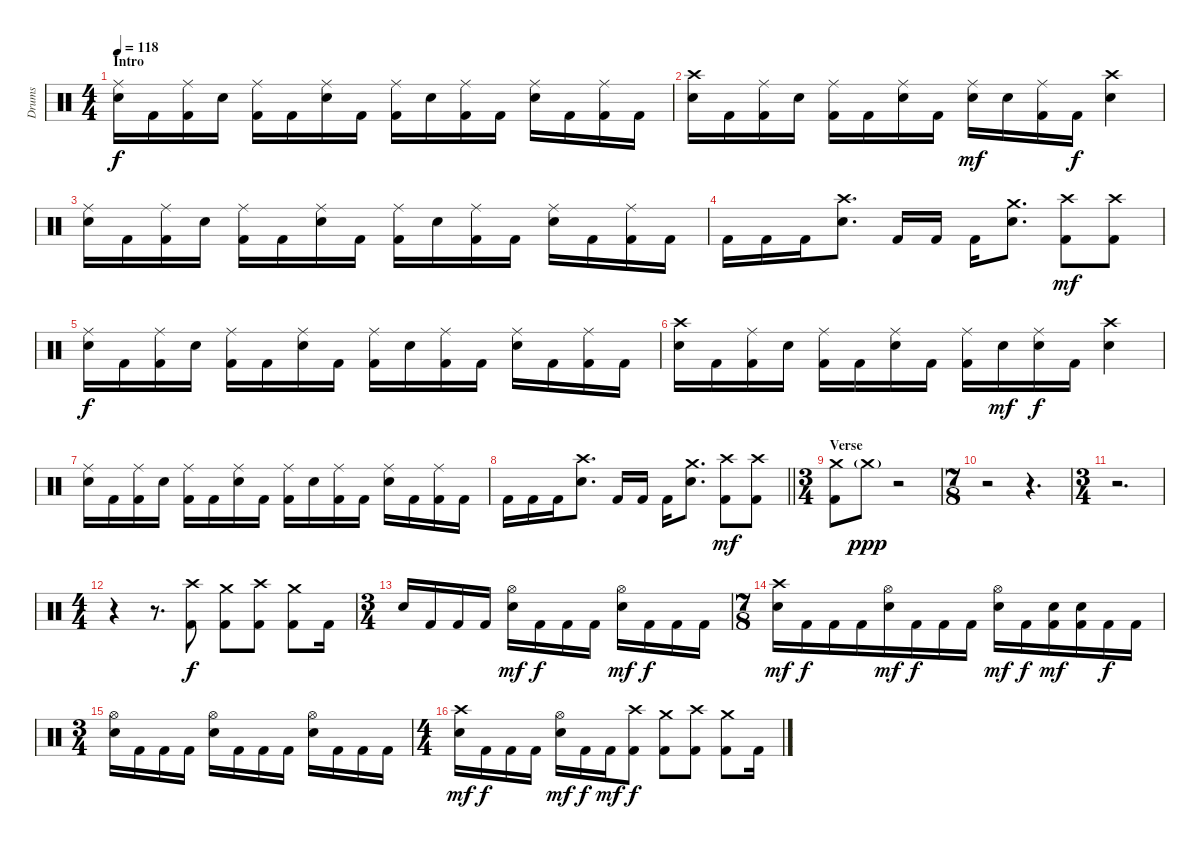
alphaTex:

\track ("Drums" "Drums") {instrument percussion}
\staff {score}
\articulation defaults
\ts (4 4)
\section ("" "Intro")
\tempo 118
\clef neutral
\ks aminor
("Ride (middle)" "Snare (hit) 2").16{dy f} "Kick (hit) 2".16 ("Ride (middle)" "Kick (hit) 2").16 "Snare (hit) 2".16 ("Ride (middle)" "Kick (hit) 2").16 "Kick (hit) 2".16 ("Ride (middle)" "Snare (hit) 2").16 "Kick (hit) 2".16 ("Ride (middle)" "Kick (hit) 2").16 "Snare (hit) 2".16 ("Ride (middle)" "Kick (hit) 2").16 "Kick (hit) 2".16 ("Ride (middle)" "Snare (hit) 2").16 "Kick (hit) 2".16 ("Ride (middle)" "Kick (hit) 2").16 "Kick (hit) 2".16 |
("Crash high (hit)" "Snare (hit) 2").16 "Kick (hit) 2".16 ("Ride (middle)" "Kick (hit) 2").16 "Snare (hit) 2".16 ("Ride (middle)" "Kick (hit) 2").16 "Kick (hit) 2".16 ("Ride (middle)" "Snare (hit) 2").16 "Kick (hit) 2".16 ("Ride (middle)" "Snare (hit) 2").16{dy mf} "Snare (hit) 2".16 ("Ride (middle)" "Kick (hit) 2").16 "Kick (hit) 2".16{dy f} ("Crash high (hit)" "Snare (hit) 2").4 |
("Ride (middle)" "Snare (hit) 2").16 "Kick (hit) 2".16 ("Ride (middle)" "Kick (hit) 2").16 "Snare (hit) 2".16 ("Ride (middle)" "Kick (hit) 2").16 "Kick (hit) 2".16 ("Ride (middle)" "Snare (hit) 2").16 "Kick (hit) 2".16 ("Ride (middle)" "Kick (hit) 2").16 "Snare (hit) 2".16 ("Ride (middle)" "Kick (hit) 2").16 "Kick (hit) 2".16 ("Ride (middle)" "Snare (hit) 2").16 "Kick (hit) 2".16 ("Ride (middle)" "Kick (hit) 2").16 "Kick (hit) 2".16 |
"Kick (hit) 2".16 "Kick (hit) 2".16 "Kick (hit) 2".16 ("Crash high (hit)" "Snare (hit) 2").8{d} "Kick (hit) 2".16 "Kick (hit) 2".16 "Kick (hit) 2".16 ("Crash medium (hit)" "Snare (hit) 2").8{d} ("Crash high (hit)" "Kick (hit) 2").8{dy mf} ("Crash high (hit)" "Kick (hit) 2").8 |
("Ride (middle)" "Snare (hit) 2").16{dy f} "Kick (hit) 2".16 ("Ride (middle)" "Kick (hit) 2").16 "Snare (hit) 2".16 ("Ride (middle)" "Kick (hit) 2").16 "Kick (hit) 2".16 ("Ride (middle)" "Snare (hit) 2").16 "Kick (hit) 2".16 ("Ride (middle)" "Kick (hit) 2").16 "Snare (hit) 2".16 ("Ride (middle)" "Kick (hit) 2").16 "Kick (hit) 2".16 ("Ride (middle)" "Snare (hit) 2").16 "Kick (hit) 2".16 ("Ride (middle)" "Kick (hit) 2").16 "Kick (hit) 2".16 |
("Crash high (hit)" "Snare (hit) 2").16 "Kick (hit) 2".16 ("Ride (middle)" "Kick (hit) 2").16 "Snare (hit) 2".16 ("Ride (middle)" "Kick (hit) 2").16 "Kick (hit) 2".16 ("Ride (middle)" "Snare (hit) 2").16 "Kick (hit) 2".16 ("Ride (middle)" "Kick (hit) 2").16 "Snare (hit) 2".16{dy mf} ("Ride (middle)" "Snare (hit) 2").16{dy f} "Kick (hit) 2".16 ("Crash high (hit)" "Snare (hit) 2").4 |
("Ride (middle)" "Snare (hit) 2").16 "Kick (hit) 2".16 ("Ride (middle)" "Kick (hit) 2").16 "Snare (hit) 2".16 ("Ride (middle)" "Kick (hit) 2").16 "Kick (hit) 2".16 ("Ride (middle)" "Snare (hit) 2").16 "Kick (hit) 2".16 ("Ride (middle)" "Kick (hit) 2").16 "Snare (hit) 2".16 ("Ride (middle)" "Kick (hit) 2").16 "Kick (hit) 2".16 ("Ride (middle)" "Snare (hit) 2").16 "Kick (hit) 2".16 ("Ride (middle)" "Kick (hit) 2").16 "Kick (hit) 2".16 |
\barLineRight lightlight "Kick (hit) 2".16 "Kick (hit) 2".16 "Kick (hit) 2".16
("Crash high (hit)" "Snare (hit) 2").8{d} "Kick (hit) 2".16 "Kick (hit) 2".16 "Kick (hit) 2".16 ("Crash medium (hit)" "Snare (hit) 2").8{d} ("Crash high (hit)" "Kick (hit) 2").8{dy mf} ("Crash high (hit)" "Kick (hit) 2").8 |
\ts (3 4)
\section ("" "Verse")
("Crash medium (hit)" "Kick (hit) 2").8 "Crash medium (hit)"{g}.8{dy ppp volume 0} r.2 |
\ts (7 8)
r.2 r.4{d} |
\ts (3 4)
r.2{d} |
\ts (4 4)
r.4 r.8{d} ("Crash high (hit)" "Kick (hit) 2").8{dy f volume 16} ("Crash medium (hit)" "Kick (hit) 2").8 ("Crash high (hit)" "Kick (hit) 2").8 ("Crash medium (hit)" "Kick (hit) 2").8 "Kick (hit) 2".16 |
\ts (3 4)
"Snare (hit) 2".16 "Kick (hit) 2".16 "Kick (hit) 2".16 "Kick (hit) 2".16 ("Hi-Hat (open)" "Snare (hit) 2").16{dy mf} "Kick (hit) 2".16{dy f} "Kick (hit) 2".16 "Kick (hit) 2".16 ("Hi-Hat (open)" "Snare (hit) 2").16{dy mf} "Kick (hit) 2".16{dy f} "Kick (hit) 2".16 "Kick (hit) 2".16 |
\ts (7 8)
("Crash high (hit)" "Snare (hit) 2").16{dy mf} "Kick (hit) 2".16{dy f} "Kick (hit) 2".16 "Kick (hit) 2".16 ("Hi-Hat (open)" "Snare (hit) 2").16{dy mf} "Kick (hit) 2".16{dy f} "Kick (hit) 2".16 "Kick (hit) 2".16 ("Hi-Hat (open)" "Snare (hit) 2").16{dy mf} "Kick (hit) 2".16{dy f} ("Snare (hit) 2" "Kick (hit) 2").16{dy mf} ("Snare (hit) 2" "Kick (hit) 2").16 "Kick (hit) 2".16{dy f} "Kick (hit) 2".16 |
\ts (3 4)
("Hi-Hat (open)" "Snare (hit) 2").16 "Kick (hit) 2".16 "Kick (hit) 2".16 "Kick (hit) 2".16 ("Hi-Hat (open)" "Snare (hit) 2").16 "Kick (hit) 2".16 "Kick (hit) 2".16 "Kick (hit) 2".16 ("Hi-Hat (open)" "Snare (hit) 2").16 "Kick (hit) 2".16 "Kick (hit) 2".16 "Kick (hit) 2".16 |
\ts (4 4)
("Crash high (hit)" "Snare (hit) 2").16{dy mf} "Kick (hit) 2".16{dy f} "Kick (hit) 2".16 "Kick (hit) 2".16 ("Hi-Hat (open)" "Snare (hit) 2").16{dy mf} "Kick (hit) 2".16{dy f} "Kick (hit) 2".16{dy mf} ("Crash high (hit)" "Kick (hit) 2").8{dy f} ("Crash medium (hit)" "Kick (hit) 2").8 ("Crash high (hit)" "Kick (hit) 2").8 ("Crash medium (hit)" "Kick (hit) 2").8 "Kick (hit) 2".16
